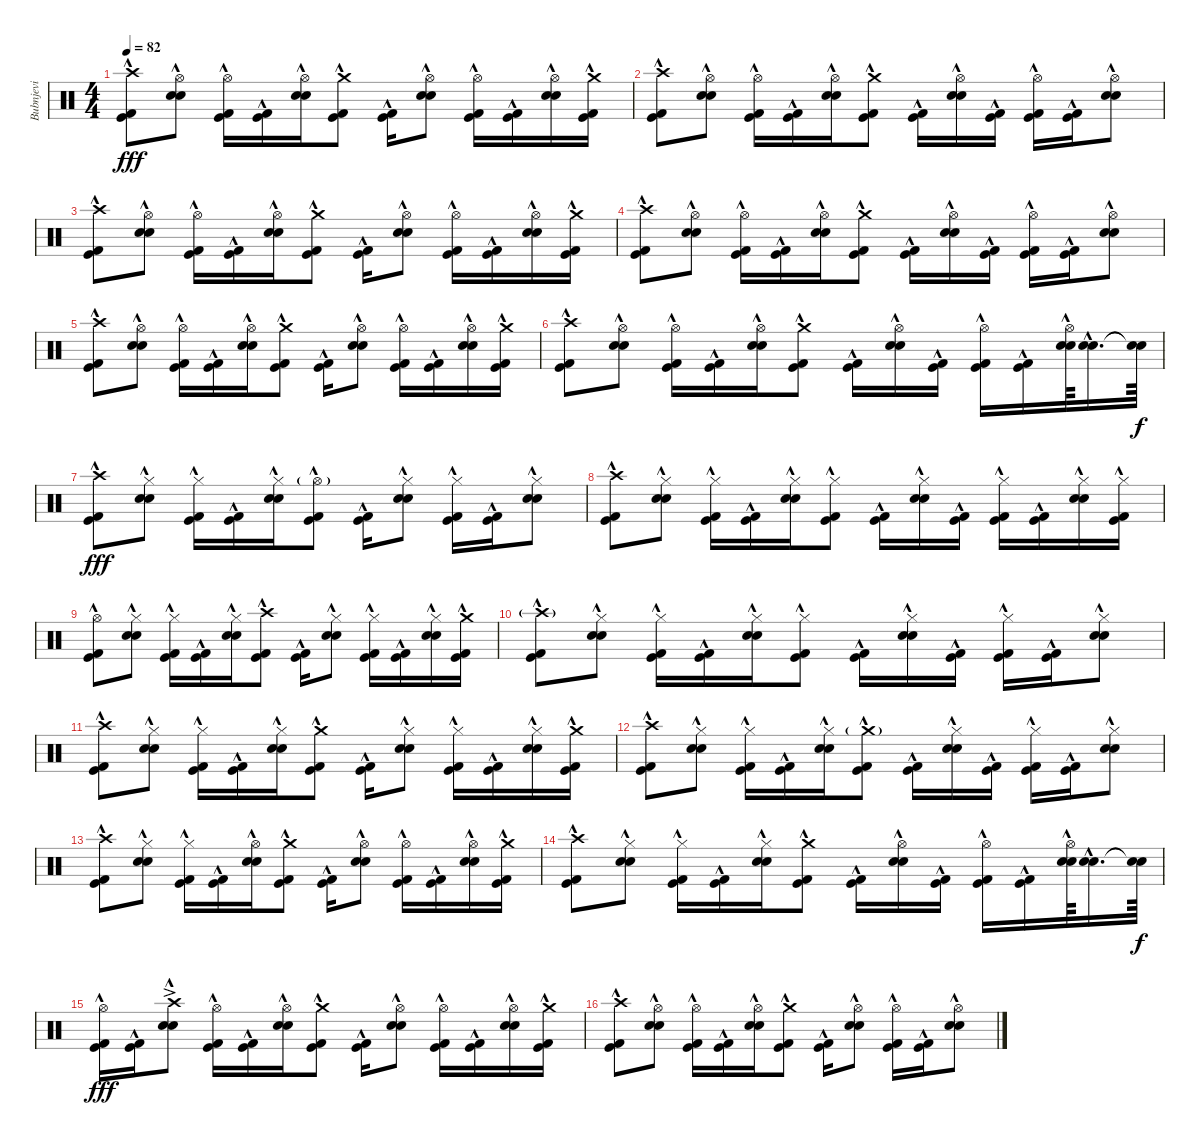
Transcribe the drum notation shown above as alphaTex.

\track ("Bubnjevi" "Bubnjevi") {instrument percussion}
\staff {score}
\articulation defaults
\ts (4 4)
\tempo 82
\clef neutral
\ks c
("Crash high (hit)" "Kick (hit) 2"{hac} "Kick (hit)"{hac}).8{dy fff} ("Hi-Hat (open)"{hac} "Snare (hit) 2"{hac} "Electric Snare (hit)"{hac}).8 ("Hi-Hat (open)"{hac} "Kick (hit) 2"{hac} "Kick (hit)"{hac}).16 ("Kick (hit) 2"{hac} "Kick (hit)"{hac}).16 ("Hi-Hat (open)"{hac} "Snare (hit) 2"{hac} "Electric Snare (hit)"{hac}).16 ("Crash medium (hit)" "Kick (hit) 2"{hac} "Kick (hit)"{hac}).8 ("Kick (hit) 2"{hac} "Kick (hit)"{hac}).16 ("Hi-Hat (open)"{hac} "Snare (hit) 2"{hac} "Electric Snare (hit)"{hac}).8 ("Hi-Hat (open)"{hac} "Kick (hit) 2"{hac} "Kick (hit)"{hac}).16 ("Kick (hit) 2"{hac} "Kick (hit)"{hac}).16 ("Hi-Hat (open)"{hac} "Snare (hit) 2"{hac} "Electric Snare (hit)"{hac}).16 ("Crash medium (hit)" "Kick (hit) 2"{hac} "Kick (hit)"{hac}).16 |
("Crash high (hit)" "Kick (hit) 2"{hac} "Kick (hit)"{hac}).8 ("Hi-Hat (open)"{hac} "Snare (hit) 2"{hac} "Electric Snare (hit)"{hac}).8 ("Hi-Hat (open)"{hac} "Kick (hit) 2"{hac} "Kick (hit)"{hac}).16 ("Kick (hit) 2"{hac} "Kick (hit)"{hac}).16 ("Hi-Hat (open)"{hac} "Snare (hit) 2"{hac} "Electric Snare (hit)"{hac}).16 ("Crash medium (hit)" "Kick (hit) 2"{hac} "Kick (hit)"{hac}).8 ("Kick (hit) 2"{hac} "Kick (hit)"{hac}).16 ("Hi-Hat (open)"{hac} "Snare (hit) 2"{hac} "Electric Snare (hit)"{hac}).16 ("Kick (hit) 2"{hac} "Kick (hit)"{hac}).16 ("Hi-Hat (open)"{hac} "Kick (hit) 2"{hac} "Kick (hit)"{hac}).16 ("Kick (hit) 2"{hac} "Kick (hit)"{hac}).16 ("Hi-Hat (open)"{hac} "Snare (hit) 2"{hac} "Electric Snare (hit)"{hac}).8 |
("Crash high (hit)" "Kick (hit) 2"{hac} "Kick (hit)"{hac}).8 ("Hi-Hat (open)"{hac} "Snare (hit) 2"{hac} "Electric Snare (hit)"{hac}).8 ("Hi-Hat (open)"{hac} "Kick (hit) 2"{hac} "Kick (hit)"{hac}).16 ("Kick (hit) 2"{hac} "Kick (hit)"{hac}).16 ("Hi-Hat (open)"{hac} "Snare (hit) 2"{hac} "Electric Snare (hit)"{hac}).16 ("Crash medium (hit)" "Kick (hit) 2"{hac} "Kick (hit)"{hac}).8 ("Kick (hit) 2"{hac} "Kick (hit)"{hac}).16 ("Hi-Hat (open)"{hac} "Snare (hit) 2"{hac} "Electric Snare (hit)"{hac}).8 ("Hi-Hat (open)"{hac} "Kick (hit) 2"{hac} "Kick (hit)"{hac}).16 ("Kick (hit) 2"{hac} "Kick (hit)"{hac}).16 ("Hi-Hat (open)"{hac} "Snare (hit) 2"{hac} "Electric Snare (hit)"{hac}).16 ("Crash medium (hit)" "Kick (hit) 2"{hac} "Kick (hit)"{hac}).16 |
("Crash high (hit)" "Kick (hit) 2"{hac} "Kick (hit)"{hac}).8 ("Hi-Hat (open)"{hac} "Snare (hit) 2"{hac} "Electric Snare (hit)"{hac}).8 ("Hi-Hat (open)"{hac} "Kick (hit) 2"{hac} "Kick (hit)"{hac}).16 ("Kick (hit) 2"{hac} "Kick (hit)"{hac}).16 ("Hi-Hat (open)"{hac} "Snare (hit) 2"{hac} "Electric Snare (hit)"{hac}).16 ("Crash medium (hit)" "Kick (hit) 2"{hac} "Kick (hit)"{hac}).8 ("Kick (hit) 2"{hac} "Kick (hit)"{hac}).16 ("Hi-Hat (open)"{hac} "Snare (hit) 2"{hac} "Electric Snare (hit)"{hac}).16 ("Kick (hit) 2"{hac} "Kick (hit)"{hac}).16 ("Hi-Hat (open)"{hac} "Kick (hit) 2"{hac} "Kick (hit)"{hac}).16 ("Kick (hit) 2"{hac} "Kick (hit)"{hac}).16 ("Hi-Hat (open)"{hac} "Snare (hit) 2"{hac} "Electric Snare (hit)"{hac}).8 |
("Crash high (hit)" "Kick (hit) 2"{hac} "Kick (hit)"{hac}).8 ("Hi-Hat (open)"{hac} "Snare (hit) 2"{hac} "Electric Snare (hit)"{hac}).8 ("Hi-Hat (open)"{hac} "Kick (hit) 2"{hac} "Kick (hit)"{hac}).16 ("Kick (hit) 2"{hac} "Kick (hit)"{hac}).16 ("Hi-Hat (open)"{hac} "Snare (hit) 2"{hac} "Electric Snare (hit)"{hac}).16 ("Crash medium (hit)" "Kick (hit) 2"{hac} "Kick (hit)"{hac}).8 ("Kick (hit) 2"{hac} "Kick (hit)"{hac}).16 ("Hi-Hat (open)"{hac} "Snare (hit) 2"{hac} "Electric Snare (hit)"{hac}).8 ("Hi-Hat (open)"{hac} "Kick (hit) 2"{hac} "Kick (hit)"{hac}).16 ("Kick (hit) 2"{hac} "Kick (hit)"{hac}).16 ("Hi-Hat (open)"{hac} "Snare (hit) 2"{hac} "Electric Snare (hit)"{hac}).16 ("Crash medium (hit)" "Kick (hit) 2"{hac} "Kick (hit)"{hac}).16 |
("Crash high (hit)" "Kick (hit) 2"{hac} "Kick (hit)"{hac}).8 ("Hi-Hat (open)"{hac} "Snare (hit) 2"{hac} "Electric Snare (hit)"{hac}).8 ("Hi-Hat (open)"{hac} "Kick (hit) 2"{hac} "Kick (hit)"{hac}).16 ("Kick (hit) 2"{hac} "Kick (hit)"{hac}).16 ("Hi-Hat (open)"{hac} "Snare (hit) 2"{hac} "Electric Snare (hit)"{hac}).16 ("Crash medium (hit)" "Kick (hit) 2"{hac} "Kick (hit)"{hac}).8 ("Kick (hit) 2"{hac} "Kick (hit)"{hac}).16 ("Hi-Hat (open)"{hac} "Snare (hit) 2"{hac} "Electric Snare (hit)"{hac}).16 ("Kick (hit) 2"{hac} "Kick (hit)"{hac}).16 ("Hi-Hat (open)"{hac} "Kick (hit) 2"{hac} "Kick (hit)"{hac}).16 ("Kick (hit) 2"{hac} "Kick (hit)"{hac}).16 ("Hi-Hat (open)"{hac} "Snare (hit) 2"{hac} "Electric Snare (hit)"{hac}).64 ("Snare (hit) 2"{hac} "Electric Snare (hit)"{hac}).16{d} ("Snare (hit)"{t} "Snare (hit)"{t}).64{dy f} |
("Crash high (hit)" "Kick (hit) 2"{hac} "Kick (hit)"{hac}).8{dy fff} ("Hi-Hat (closed)"{hac} "Snare (hit) 2"{hac} "Electric Snare (hit)"{hac}).8 ("Hi-Hat (closed)"{hac} "Kick (hit) 2"{hac} "Kick (hit)"{hac}).16 ("Kick (hit) 2"{hac} "Kick (hit)"{hac}).16 ("Hi-Hat (closed)"{hac} "Snare (hit) 2"{hac} "Electric Snare (hit)"{hac}).16 ("Hi-Hat (open)"{g} "Kick (hit) 2"{hac} "Kick (hit)"{hac}).8 ("Kick (hit) 2"{hac} "Kick (hit)"{hac}).16 ("Hi-Hat (closed)"{hac} "Snare (hit) 2"{hac} "Electric Snare (hit)"{hac}).8 ("Hi-Hat (closed)"{hac} "Kick (hit) 2"{hac} "Kick (hit)"{hac}).16 ("Kick (hit) 2"{hac} "Kick (hit)"{hac}).16 ("Hi-Hat (closed)"{hac} "Snare (hit) 2"{hac} "Electric Snare (hit)"{hac}).8 |
("Crash high (hit)" "Kick (hit) 2"{hac} "Kick (hit)"{hac}).8 ("Hi-Hat (closed)"{hac} "Snare (hit) 2"{hac} "Electric Snare (hit)"{hac}).8 ("Hi-Hat (closed)"{hac} "Kick (hit) 2"{hac} "Kick (hit)"{hac}).16 ("Kick (hit) 2"{hac} "Kick (hit)"{hac}).16 ("Hi-Hat (closed)"{hac} "Snare (hit) 2"{hac} "Electric Snare (hit)"{hac}).16 ("Hi-Hat (closed)"{hac} "Kick (hit) 2"{hac} "Kick (hit)"{hac}).8 ("Kick (hit) 2"{hac} "Kick (hit)"{hac}).16 ("Hi-Hat (closed)"{hac} "Snare (hit) 2"{hac} "Electric Snare (hit)"{hac}).16 ("Kick (hit) 2"{hac} "Kick (hit)"{hac}).16 ("Hi-Hat (closed)"{hac} "Kick (hit) 2"{hac} "Kick (hit)"{hac}).16 ("Kick (hit) 2"{hac} "Kick (hit)"{hac}).16 ("Hi-Hat (closed)"{hac} "Snare (hit) 2"{hac} "Electric Snare (hit)"{hac}).16 ("Hi-Hat (closed)"{hac} "Kick (hit) 2"{hac} "Kick (hit)"{hac}).16 |
("Hi-Hat (open)"{hac} "Kick (hit) 2"{hac} "Kick (hit)"{hac}).8 ("Hi-Hat (closed)"{hac} "Snare (hit) 2"{hac} "Electric Snare (hit)"{hac}).8 ("Hi-Hat (closed)"{hac} "Kick (hit) 2"{hac} "Kick (hit)"{hac}).16 ("Kick (hit) 2"{hac} "Kick (hit)"{hac}).16 ("Hi-Hat (closed)"{hac} "Snare (hit) 2"{hac} "Electric Snare (hit)"{hac}).16 ("Crash high (hit)" "Kick (hit) 2"{hac} "Kick (hit)"{hac}).8 ("Kick (hit) 2"{hac} "Kick (hit)"{hac}).16 ("Hi-Hat (closed)"{hac} "Snare (hit) 2"{hac} "Electric Snare (hit)"{hac}).8 ("Hi-Hat (closed)"{hac} "Kick (hit) 2"{hac} "Kick (hit)"{hac}).16 ("Kick (hit) 2"{hac} "Kick (hit)"{hac}).16 ("Hi-Hat (closed)"{hac} "Snare (hit) 2"{hac} "Electric Snare (hit)"{hac}).16 ("Crash medium (hit)" "Kick (hit) 2"{hac} "Kick (hit)"{hac}).16 |
("Crash high (hit)"{g} "Kick (hit) 2"{hac} "Kick (hit)"{hac}).8 ("Hi-Hat (closed)"{hac} "Snare (hit) 2"{hac} "Electric Snare (hit)"{hac}).8 ("Hi-Hat (closed)"{hac} "Kick (hit) 2"{hac} "Kick (hit)"{hac}).16 ("Kick (hit) 2"{hac} "Kick (hit)"{hac}).16 ("Hi-Hat (closed)"{hac} "Snare (hit) 2"{hac} "Electric Snare (hit)"{hac}).16 ("Hi-Hat (closed)"{hac} "Kick (hit) 2"{hac} "Kick (hit)"{hac}).8 ("Kick (hit) 2"{hac} "Kick (hit)"{hac}).16 ("Hi-Hat (closed)"{hac} "Snare (hit) 2"{hac} "Electric Snare (hit)"{hac}).16 ("Kick (hit) 2"{hac} "Kick (hit)"{hac}).16 ("Hi-Hat (closed)"{hac} "Kick (hit) 2"{hac} "Kick (hit)"{hac}).16 ("Kick (hit) 2"{hac} "Kick (hit)"{hac}).16 ("Hi-Hat (closed)"{hac} "Snare (hit) 2"{hac} "Electric Snare (hit)"{hac}).8 |
("Crash high (hit)" "Kick (hit) 2"{hac} "Kick (hit)"{hac}).8 ("Hi-Hat (closed)"{hac} "Snare (hit) 2"{hac} "Electric Snare (hit)"{hac}).8 ("Hi-Hat (closed)"{hac} "Kick (hit) 2"{hac} "Kick (hit)"{hac}).16 ("Kick (hit) 2"{hac} "Kick (hit)"{hac}).16 ("Hi-Hat (closed)"{hac} "Snare (hit) 2"{hac} "Electric Snare (hit)"{hac}).16 ("Crash medium (hit)"{hac} "Kick (hit) 2"{hac} "Kick (hit)"{hac}).8 ("Kick (hit) 2"{hac} "Kick (hit)"{hac}).16 ("Hi-Hat (closed)"{hac} "Snare (hit) 2"{hac} "Electric Snare (hit)"{hac}).8 ("Hi-Hat (closed)"{hac} "Kick (hit) 2"{hac} "Kick (hit)"{hac}).16 ("Kick (hit) 2"{hac} "Kick (hit)"{hac}).16 ("Hi-Hat (closed)"{hac} "Snare (hit) 2"{hac} "Electric Snare (hit)"{hac}).16 ("Crash medium (hit)" "Kick (hit) 2"{hac} "Kick (hit)"{hac}).16 |
("Crash high (hit)" "Kick (hit) 2"{hac} "Kick (hit)"{hac}).8 ("Hi-Hat (closed)"{hac} "Snare (hit) 2"{hac} "Electric Snare (hit)"{hac}).8 ("Hi-Hat (closed)"{hac} "Kick (hit) 2"{hac} "Kick (hit)"{hac}).16 ("Kick (hit) 2"{hac} "Kick (hit)"{hac}).16 ("Hi-Hat (closed)"{hac} "Snare (hit) 2"{hac} "Electric Snare (hit)"{hac}).16 ("Crash medium (hit)"{g} "Kick (hit) 2"{hac} "Kick (hit)"{hac}).8 ("Kick (hit) 2"{hac} "Kick (hit)"{hac}).16 ("Hi-Hat (closed)"{hac} "Snare (hit) 2"{hac} "Electric Snare (hit)"{hac}).16 ("Kick (hit) 2"{hac} "Kick (hit)"{hac}).16 ("Hi-Hat (closed)"{hac} "Kick (hit) 2"{hac} "Kick (hit)"{hac}).16 ("Kick (hit) 2"{hac} "Kick (hit)"{hac}).16 ("Hi-Hat (closed)"{hac} "Snare (hit) 2"{hac} "Electric Snare (hit)"{hac}).8 |
("Crash high (hit)" "Kick (hit) 2"{hac} "Kick (hit)"{hac}).8 ("Hi-Hat (closed)"{hac} "Snare (hit) 2"{hac} "Electric Snare (hit)"{hac}).8 ("Hi-Hat (closed)"{hac} "Kick (hit) 2"{hac} "Kick (hit)"{hac}).16 ("Kick (hit) 2"{hac} "Kick (hit)"{hac}).16 ("Hi-Hat (open)"{hac} "Snare (hit) 2"{hac} "Electric Snare (hit)"{hac}).16 ("Crash medium (hit)" "Kick (hit) 2"{hac} "Kick (hit)"{hac}).8 ("Kick (hit) 2"{hac} "Kick (hit)"{hac}).16 ("Hi-Hat (open)"{hac} "Snare (hit) 2"{hac} "Electric Snare (hit)"{hac}).8 ("Hi-Hat (open)" "Kick (hit) 2"{hac} "Kick (hit)"{hac}).16 ("Kick (hit) 2"{hac} "Kick (hit)"{hac}).16 ("Hi-Hat (open)" "Snare (hit) 2"{hac} "Electric Snare (hit)"{hac}).16 ("Crash medium (hit)" "Kick (hit) 2"{hac} "Kick (hit)"{hac}).16 |
("Crash high (hit)" "Kick (hit) 2"{hac} "Kick (hit)"{hac}).8 ("Hi-Hat (closed)"{hac} "Snare (hit) 2"{hac} "Electric Snare (hit)"{hac}).8 ("Hi-Hat (closed)"{hac} "Kick (hit) 2"{hac} "Kick (hit)"{hac}).16 ("Kick (hit) 2"{hac} "Kick (hit)"{hac}).16 ("Hi-Hat (closed)"{hac} "Snare (hit) 2"{hac} "Electric Snare (hit)"{hac}).16 ("Crash medium (hit)" "Kick (hit) 2"{hac} "Kick (hit)"{hac}).8 ("Kick (hit) 2"{hac} "Kick (hit)"{hac}).16 ("Hi-Hat (open)"{hac} "Snare (hit) 2"{hac} "Electric Snare (hit)"{hac}).16 ("Kick (hit) 2"{hac} "Kick (hit)"{hac}).16 ("Hi-Hat (open)"{hac} "Kick (hit) 2"{hac} "Kick (hit)"{hac}).16 ("Kick (hit) 2"{hac} "Kick (hit)"{hac}).16 ("Hi-Hat (open)"{hac} "Snare (hit) 2"{hac} "Electric Snare (hit)"{hac}).64 ("Snare (hit) 2"{hac} "Electric Snare (hit)"{hac}).16{d} ("Snare (hit)"{t} "Snare (hit)"{t}).64{dy f} |
("Hi-Hat (open)"{hac} "Kick (hit) 2"{hac} "Kick (hit)"{hac}).16{dy fff} ("Kick (hit) 2"{hac} "Kick (hit)"{hac}).16 ("Crash high (hit)"{ac} "Snare (hit) 2"{hac} "Electric Snare (hit)"{hac}).8 ("Hi-Hat (open)"{hac} "Kick (hit) 2"{hac} "Kick (hit)"{hac}).16 ("Kick (hit) 2"{hac} "Kick (hit)"{hac}).16 ("Hi-Hat (open)"{hac} "Snare (hit) 2"{hac} "Electric Snare (hit)"{hac}).16 ("Crash medium (hit)" "Kick (hit) 2"{hac} "Kick (hit)"{hac}).8 ("Kick (hit) 2"{hac} "Kick (hit)"{hac}).16 ("Hi-Hat (open)"{hac} "Snare (hit) 2"{hac} "Electric Snare (hit)"{hac}).8 ("Hi-Hat (open)"{hac} "Kick (hit) 2"{hac} "Kick (hit)"{hac}).16 ("Kick (hit) 2"{hac} "Kick (hit)"{hac}).16 ("Hi-Hat (open)"{hac} "Snare (hit) 2"{hac} "Electric Snare (hit)"{hac}).16 ("Crash medium (hit)" "Kick (hit) 2"{hac} "Kick (hit)"{hac}).16 |
("Crash high (hit)" "Kick (hit) 2"{hac} "Kick (hit)"{hac}).8 ("Hi-Hat (open)"{hac} "Snare (hit) 2"{hac} "Electric Snare (hit)"{hac}).8 ("Hi-Hat (open)"{hac} "Kick (hit) 2"{hac} "Kick (hit)"{hac}).16 ("Kick (hit) 2"{hac} "Kick (hit)"{hac}).16 ("Hi-Hat (open)"{hac} "Snare (hit) 2"{hac} "Electric Snare (hit)"{hac}).16 ("Crash medium (hit)" "Kick (hit) 2"{hac} "Kick (hit)"{hac}).8 ("Kick (hit) 2"{hac} "Kick (hit)"{hac}).16 ("Hi-Hat (open)"{hac} "Snare (hit) 2"{hac} "Electric Snare (hit)"{hac}).8 ("Hi-Hat (open)"{hac} "Kick (hit) 2"{hac} "Kick (hit)"{hac}).16 ("Kick (hit) 2"{hac} "Kick (hit)"{hac}).16 ("Hi-Hat (open)"{hac} "Snare (hit) 2"{hac} "Electric Snare (hit)"{hac}).8
